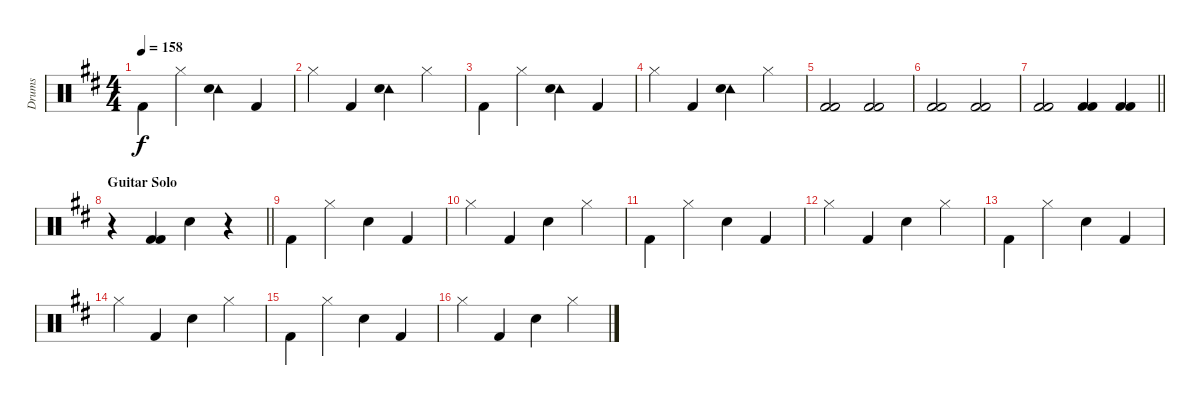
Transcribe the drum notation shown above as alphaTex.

\track ("Drums" "Drums") {instrument percussion}
\staff {score}
\articulation defaults
\ts (4 4)
\tempo 158
\clef neutral
\ks d "Kick (hit) 2".4{dy f beam merge} "Hi-Hat (closed)".4
("Tambourine (hit)" "Snare (hit) 2").4 "Kick (hit) 2".4 |
"Hi-Hat (closed)".4 "Kick (hit) 2".4 ("Tambourine (hit)" "Snare (hit) 2").4 "Hi-Hat (closed)".4 |
"Kick (hit) 2".4{beam merge} "Hi-Hat (closed)".4 ("Tambourine (hit)" "Snare (hit) 2").4 "Kick (hit) 2".4 |
"Hi-Hat (closed)".4 "Kick (hit) 2".4 ("Tambourine (hit)" "Snare (hit) 2").4 "Hi-Hat (closed)".4 |
("Kick (hit) 2" "Kick (hit) 2").2 ("Kick (hit) 2" "Kick (hit) 2").2 |
("Kick (hit) 2" "Kick (hit) 2").2 ("Kick (hit) 2" "Kick (hit) 2").2 |
\barLineRight lightlight
("Kick (hit) 2" "Kick (hit) 2").2 ("Kick (hit) 2" "Kick (hit) 2").4 ("Kick (hit) 2" "Kick (hit) 2").4 |
\section ("" "Guitar Solo")
\barLineRight lightlight
r.4{beam merge} ("Kick (hit) 2" "Kick (hit) 2").4 "Snare (hit) 2".4 r.4 |
"Kick (hit) 2".4{beam merge} "Hi-Hat (closed)".4 "Snare (hit) 2".4 "Kick (hit) 2".4 |
"Hi-Hat (closed)".4 "Kick (hit) 2".4 "Snare (hit) 2".4 "Hi-Hat (closed)".4 |
"Kick (hit) 2".4{beam merge} "Hi-Hat (closed)".4 "Snare (hit) 2".4 "Kick (hit) 2".4 |
"Hi-Hat (closed)".4 "Kick (hit) 2".4 "Snare (hit) 2".4 "Hi-Hat (closed)".4 |
"Kick (hit) 2".4{beam merge} "Hi-Hat (closed)".4 "Snare (hit) 2".4 "Kick (hit) 2".4 |
"Hi-Hat (closed)".4 "Kick (hit) 2".4 "Snare (hit) 2".4 "Hi-Hat (closed)".4 |
"Kick (hit) 2".4{beam merge} "Hi-Hat (closed)".4 "Snare (hit) 2".4 "Kick (hit) 2".4 |
"Hi-Hat (closed)".4 "Kick (hit) 2".4 "Snare (hit) 2".4 "Hi-Hat (closed)".4
